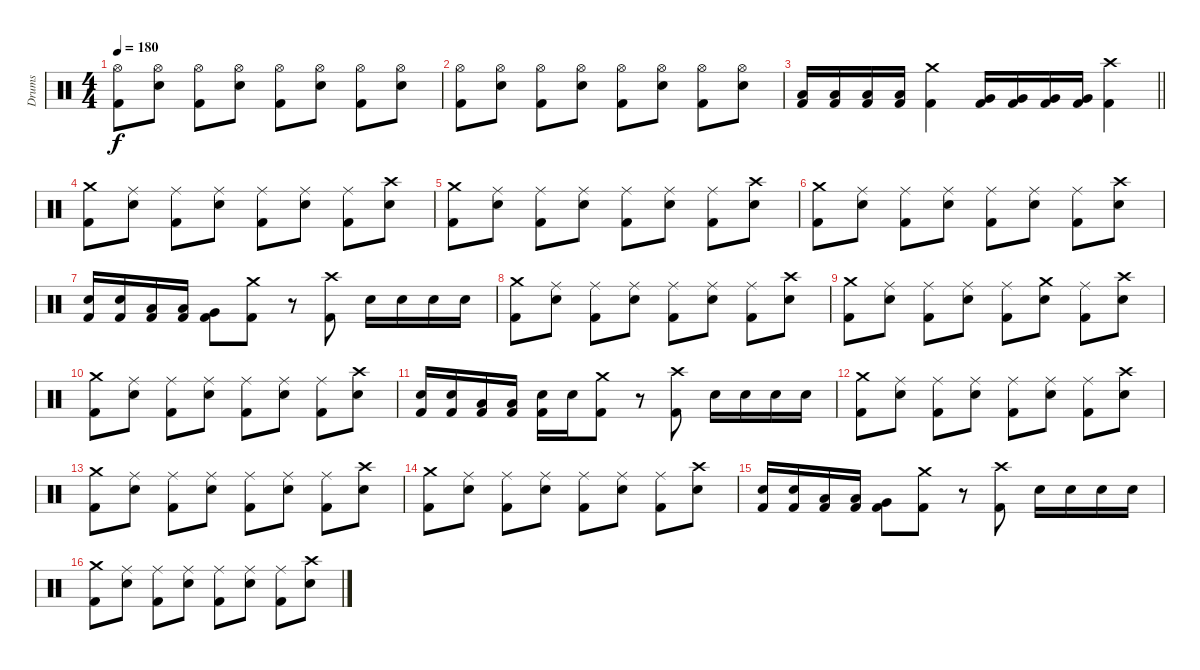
\track ("Drums" "Drums") {instrument percussion}
\staff {score}
\articulation defaults
\ts (4 4)
\tempo 180
\clef neutral
\ks c
("Hi-Hat (open)" "Kick (hit) 2").8{dy f} ("Hi-Hat (open)" "Snare (hit) 2").8 ("Hi-Hat (open)" "Kick (hit) 2").8 ("Hi-Hat (open)" "Snare (hit) 2").8 ("Hi-Hat (open)" "Kick (hit) 2").8 ("Hi-Hat (open)" "Snare (hit) 2").8 ("Hi-Hat (open)" "Kick (hit) 2").8 ("Hi-Hat (open)" "Snare (hit) 2").8 |
("Hi-Hat (open)" "Kick (hit) 2").8 ("Hi-Hat (open)" "Snare (hit) 2").8 ("Hi-Hat (open)" "Kick (hit) 2").8 ("Hi-Hat (open)" "Snare (hit) 2").8 ("Hi-Hat (open)" "Kick (hit) 2").8 ("Hi-Hat (open)" "Snare (hit) 2").8 ("Hi-Hat (open)" "Kick (hit) 2").8 ("Hi-Hat (open)" "Snare (hit) 2").8 |
\barLineRight lightlight
("Low Tom (hit)" "Kick (hit) 2").16 ("Low Tom (hit)" "Kick (hit) 2").16 ("Low Tom (hit)" "Kick (hit) 2").16 ("Low Tom (hit)" "Kick (hit) 2").16 ("Crash medium (hit)" "Kick (hit) 2").4 ("Very Low Tom (hit)" "Kick (hit) 2").16 ("Very Low Tom (hit)" "Kick (hit) 2").16 ("Very Low Tom (hit)" "Kick (hit) 2").16 ("Very Low Tom (hit)" "Kick (hit) 2").16 ("Crash high (hit)" "Kick (hit) 2").4 |
("Crash medium (hit)" "Kick (hit) 2").8 ("Ride (middle)" "Snare (hit) 2").8 ("Ride (middle)" "Kick (hit) 2").8 ("Ride (middle)" "Snare (hit) 2").8 ("Ride (middle)" "Kick (hit) 2").8 ("Ride (middle)" "Snare (hit) 2").8 ("Ride (middle)" "Kick (hit) 2").8 ("Crash high (hit)" "Snare (hit) 2").8 |
("Crash medium (hit)" "Kick (hit) 2").8 ("Ride (middle)" "Snare (hit) 2").8 ("Ride (middle)" "Kick (hit) 2").8 ("Ride (middle)" "Snare (hit) 2").8 ("Ride (middle)" "Kick (hit) 2").8 ("Ride (middle)" "Snare (hit) 2").8 ("Ride (middle)" "Kick (hit) 2").8 ("Crash high (hit)" "Snare (hit) 2").8 |
("Crash medium (hit)" "Kick (hit) 2").8 ("Ride (middle)" "Snare (hit) 2").8 ("Ride (middle)" "Kick (hit) 2").8 ("Ride (middle)" "Snare (hit) 2").8 ("Ride (middle)" "Kick (hit) 2").8 ("Ride (middle)" "Snare (hit) 2").8 ("Ride (middle)" "Kick (hit) 2").8 ("Crash high (hit)" "Snare (hit) 2").8 |
("Snare (hit) 2" "Kick (hit) 2").16 ("Snare (hit) 2" "Kick (hit) 2").16 ("Low Tom (hit)" "Kick (hit) 2").16 ("Low Tom (hit)" "Kick (hit) 2").16 ("Very Low Tom (hit)" "Kick (hit) 2").8 ("Crash medium (hit)" "Kick (hit) 2").8 r.8 ("Crash high (hit)" "Kick (hit) 2").8 "Snare (hit) 2".16 "Snare (hit) 2".16 "Snare (hit) 2".16 "Snare (hit) 2".16 |
("Crash medium (hit)" "Kick (hit) 2").8 ("Ride (middle)" "Snare (hit) 2").8 ("Ride (middle)" "Kick (hit) 2").8 ("Ride (middle)" "Snare (hit) 2").8 ("Ride (middle)" "Kick (hit) 2").8 ("Ride (middle)" "Snare (hit) 2").8 ("Ride (middle)" "Kick (hit) 2").8 ("Crash high (hit)" "Snare (hit) 2").8 |
("Crash medium (hit)" "Kick (hit) 2").8 ("Ride (middle)" "Snare (hit) 2").8 ("Ride (middle)" "Kick (hit) 2").8 ("Ride (middle)" "Snare (hit) 2").8 ("Ride (middle)" "Kick (hit) 2").8 ("Crash medium (hit)" "Snare (hit) 2").8 ("Ride (middle)" "Kick (hit) 2").8 ("Crash high (hit)" "Snare (hit) 2").8 |
("Crash medium (hit)" "Kick (hit) 2").8 ("Ride (middle)" "Snare (hit) 2").8 ("Ride (middle)" "Kick (hit) 2").8 ("Ride (middle)" "Snare (hit) 2").8 ("Ride (middle)" "Kick (hit) 2").8 ("Ride (middle)" "Snare (hit) 2").8 ("Ride (middle)" "Kick (hit) 2").8 ("Crash high (hit)" "Snare (hit) 2").8 |
("Snare (hit) 2" "Kick (hit) 2").16 ("Snare (hit) 2" "Kick (hit) 2").16 ("Low Tom (hit)" "Kick (hit) 2").16 ("Low Tom (hit)" "Kick (hit) 2").16 ("Snare (hit) 2" "Kick (hit) 2").16 "Snare (hit) 2".16 ("Crash medium (hit)" "Kick (hit) 2").8 r.8 ("Crash high (hit)" "Kick (hit) 2").8 "Snare (hit) 2".16 "Snare (hit) 2".16 "Snare (hit) 2".16 "Snare (hit) 2".16 |
("Crash medium (hit)" "Kick (hit) 2").8 ("Ride (middle)" "Snare (hit) 2").8 ("Ride (middle)" "Kick (hit) 2").8 ("Ride (middle)" "Snare (hit) 2").8 ("Ride (middle)" "Kick (hit) 2").8 ("Ride (middle)" "Snare (hit) 2").8 ("Ride (middle)" "Kick (hit) 2").8 ("Crash high (hit)" "Snare (hit) 2").8 |
("Crash medium (hit)" "Kick (hit) 2").8 ("Ride (middle)" "Snare (hit) 2").8 ("Ride (middle)" "Kick (hit) 2").8 ("Ride (middle)" "Snare (hit) 2").8 ("Ride (middle)" "Kick (hit) 2").8 ("Ride (middle)" "Snare (hit) 2").8 ("Ride (middle)" "Kick (hit) 2").8 ("Crash high (hit)" "Snare (hit) 2").8 |
("Crash medium (hit)" "Kick (hit) 2").8 ("Ride (middle)" "Snare (hit) 2").8 ("Ride (middle)" "Kick (hit) 2").8 ("Ride (middle)" "Snare (hit) 2").8 ("Ride (middle)" "Kick (hit) 2").8 ("Ride (middle)" "Snare (hit) 2").8 ("Ride (middle)" "Kick (hit) 2").8 ("Crash high (hit)" "Snare (hit) 2").8 |
("Snare (hit) 2" "Kick (hit) 2").16 ("Snare (hit) 2" "Kick (hit) 2").16 ("Low Tom (hit)" "Kick (hit) 2").16 ("Low Tom (hit)" "Kick (hit) 2").16 ("Very Low Tom (hit)" "Kick (hit) 2").8 ("Crash medium (hit)" "Kick (hit) 2").8 r.8 ("Crash high (hit)" "Kick (hit) 2").8 "Snare (hit) 2".16 "Snare (hit) 2".16 "Snare (hit) 2".16 "Snare (hit) 2".16 |
("Crash medium (hit)" "Kick (hit) 2").8 ("Ride (middle)" "Snare (hit) 2").8 ("Ride (middle)" "Kick (hit) 2").8 ("Ride (middle)" "Snare (hit) 2").8 ("Ride (middle)" "Kick (hit) 2").8 ("Ride (middle)" "Snare (hit) 2").8 ("Ride (middle)" "Kick (hit) 2").8 ("Crash high (hit)" "Snare (hit) 2").8
